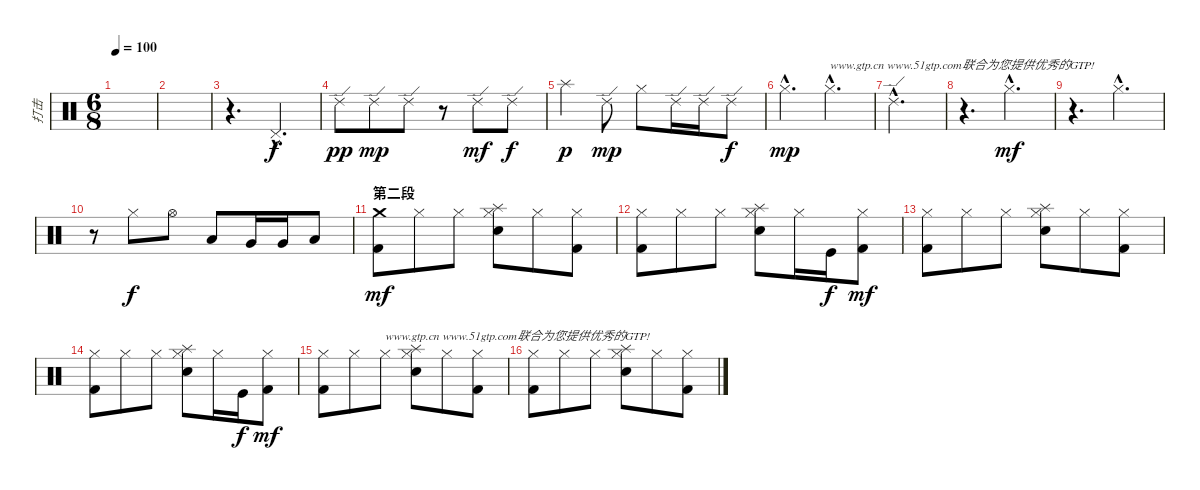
\track ("打击" "打击") {instrument percussion}
\staff {score}
\articulation defaults
\ts (6 8)
\tempo 100
\clef neutral
\ks c
|
|
r.4{d} "Pedal Hi-Hat (hit)"{hac}.4{d} |
"Ride (edge) 2".8{dy pp} "Ride (edge) 2".8{dy mp} "Ride (edge) 2".8 r.8 "Ride (edge) 2".8{dy mf} "Ride (edge) 2".8{dy f} |
"Splash (hit)".4{dy p} "Ride (edge) 2".8{dy mp} "Hi-Hat (closed)".8 "Ride (edge) 2".16 "Ride (edge) 2".16 "Ride (edge) 2".8{dy f} |
"Hi-Hat (closed)"{hac}.4{d dy mp} "Hi-Hat (closed)"{hac}.4{d txt "www.gtp.cn www.51gtp.com联合为您提供优秀的GTP!"} |
"Ride (edge) 2"{hac}.2{d} |
r.4{d} "Hi-Hat (closed)"{hac}.4{d dy mf} |
r.4{d} "Hi-Hat (closed)"{hac}.4{d} |
r.8 "Hi-Hat (closed)".8{dy f} "Hi-Hat (open)".8 "Low Tom (hit)".8 "Very Low Tom (hit)".16 "Very Low Tom (hit)".16 "Low Floor Tom (hit)".8 |
\section ("" "第二段")
("Crash medium (hit)" "Kick (hit) 2").8{dy mf} "Hi-Hat (closed)".8 "Hi-Hat (closed)".8 ("Hi-Hat (closed)" "Splash (hit)" "Electric Snare (hit)").8 "Hi-Hat (closed)".8 ("Hi-Hat (closed)" "Kick (hit) 2").8 |
("Hi-Hat (closed)" "Kick (hit) 2").8 "Hi-Hat (closed)".8 "Hi-Hat (closed)".8 ("Hi-Hat (closed)" "Splash (hit)" "Electric Snare (hit)").8 "Hi-Hat (closed)".16 "Kick (hit)".16{dy f} ("Hi-Hat (closed)" "Kick (hit) 2").8{dy mf} |
("Hi-Hat (closed)" "Kick (hit) 2").8 "Hi-Hat (closed)".8 "Hi-Hat (closed)".8 ("Hi-Hat (closed)" "Splash (hit)" "Electric Snare (hit)").8 "Hi-Hat (closed)".8 ("Hi-Hat (closed)" "Kick (hit) 2").8 |
("Hi-Hat (closed)" "Kick (hit) 2").8 "Hi-Hat (closed)".8 "Hi-Hat (closed)".8 ("Hi-Hat (closed)" "Splash (hit)" "Electric Snare (hit)").8 "Hi-Hat (closed)".16 "Kick (hit)".16{dy f} ("Hi-Hat (closed)" "Kick (hit) 2").8{dy mf} |
("Hi-Hat (closed)" "Kick (hit) 2").8 "Hi-Hat (closed)".8 "Hi-Hat (closed)".8{txt "www.gtp.cn www.51gtp.com联合为您提供优秀的GTP!"} ("Hi-Hat (closed)" "Splash (hit)" "Electric Snare (hit)").8 "Hi-Hat (closed)".8 ("Hi-Hat (closed)" "Kick (hit) 2").8 |
("Hi-Hat (closed)" "Kick (hit) 2").8 "Hi-Hat (closed)".8 "Hi-Hat (closed)".8 ("Hi-Hat (closed)" "Splash (hit)" "Electric Snare (hit)").8 "Hi-Hat (closed)".8 ("Hi-Hat (closed)" "Kick (hit) 2").8
